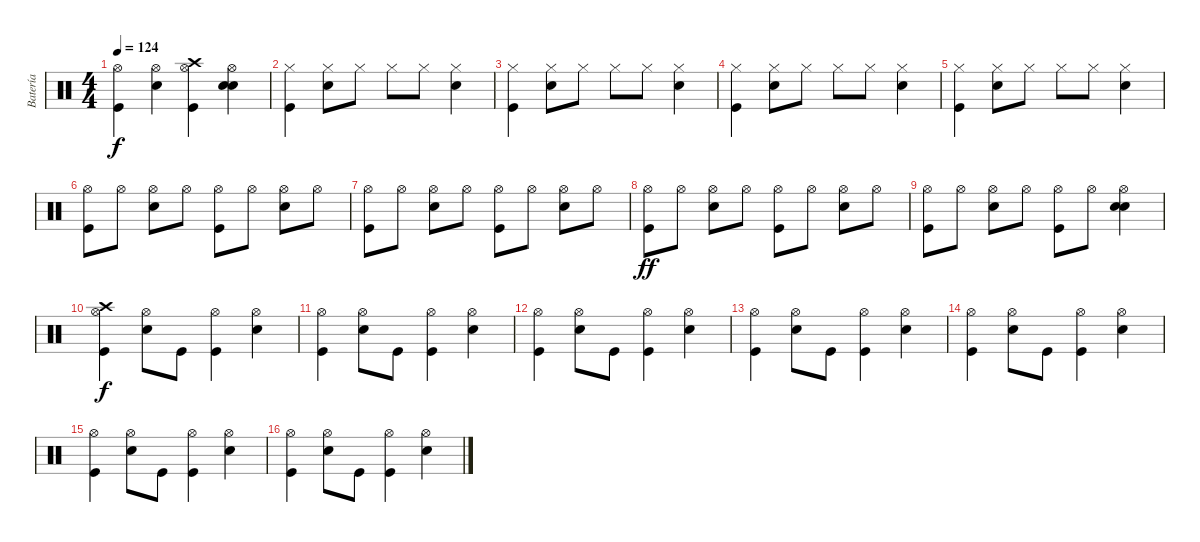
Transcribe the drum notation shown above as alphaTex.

\track ("Batería" "Batería") {instrument percussion}
\staff {score}
\articulation defaults
\ts (4 4)
\tempo 124
\clef neutral
\ks c
("Hi-Hat (open)" "Kick (hit)").4{dy f} ("Hi-Hat (open)" "Snare (hit) 2").4 ("Crash high (hit)" "Hi-Hat (open)" "Kick (hit)").4 ("Hi-Hat (open)" "Snare (hit) 2" "Snare (hit) 2").4 |
("Hi-Hat (closed)" "Kick (hit)").4 ("Hi-Hat (closed)" "Snare (hit) 2").8 "Hi-Hat (closed)".8 "Hi-Hat (closed)".8 "Hi-Hat (closed)".8 ("Hi-Hat (closed)" "Snare (hit) 2").4 |
("Hi-Hat (closed)" "Kick (hit)").4 ("Hi-Hat (closed)" "Snare (hit) 2").8 "Hi-Hat (closed)".8 "Hi-Hat (closed)".8 "Hi-Hat (closed)".8 ("Hi-Hat (closed)" "Snare (hit) 2").4 |
("Hi-Hat (closed)" "Kick (hit)").4 ("Hi-Hat (closed)" "Snare (hit) 2").8 "Hi-Hat (closed)".8 "Hi-Hat (closed)".8 "Hi-Hat (closed)".8 ("Hi-Hat (closed)" "Snare (hit) 2").4 |
("Hi-Hat (closed)" "Kick (hit)").4 ("Hi-Hat (closed)" "Snare (hit) 2").8 "Hi-Hat (closed)".8 "Hi-Hat (closed)".8 "Hi-Hat (closed)".8 ("Hi-Hat (closed)" "Snare (hit) 2").4 |
("Hi-Hat (open)" "Kick (hit)").8 "Hi-Hat (open)".8 ("Hi-Hat (open)" "Snare (hit) 2").8 "Hi-Hat (open)".8 ("Hi-Hat (open)" "Kick (hit)").8 "Hi-Hat (open)".8 ("Hi-Hat (open)" "Snare (hit) 2").8 "Hi-Hat (open)".8 |
("Hi-Hat (open)" "Kick (hit)").8 "Hi-Hat (open)".8 ("Hi-Hat (open)" "Snare (hit) 2").8 "Hi-Hat (open)".8 ("Hi-Hat (open)" "Kick (hit)").8 "Hi-Hat (open)".8 ("Hi-Hat (open)" "Snare (hit) 2").8 "Hi-Hat (open)".8 |
("Hi-Hat (open)" "Kick (hit)").8{dy ff} "Hi-Hat (open)".8 ("Hi-Hat (open)" "Snare (hit) 2").8 "Hi-Hat (open)".8 ("Hi-Hat (open)" "Kick (hit)").8 "Hi-Hat (open)".8 ("Hi-Hat (open)" "Snare (hit) 2").8 "Hi-Hat (open)".8 |
("Hi-Hat (open)" "Kick (hit)").8 "Hi-Hat (open)".8 ("Hi-Hat (open)" "Snare (hit) 2").8 "Hi-Hat (open)".8 ("Hi-Hat (open)" "Kick (hit)").8 "Hi-Hat (open)".8 ("Hi-Hat (open)" "Snare (hit) 2" "Snare (hit) 2").4 |
("Crash high (hit)" "Hi-Hat (open)" "Kick (hit)").4{dy f} ("Hi-Hat (open)" "Snare (hit) 2").8 "Kick (hit)".8 ("Hi-Hat (open)" "Kick (hit)").4 ("Hi-Hat (open)" "Snare (hit) 2").4 |
("Hi-Hat (open)" "Kick (hit)").4 ("Hi-Hat (open)" "Snare (hit) 2").8 "Kick (hit)".8 ("Hi-Hat (open)" "Kick (hit)").4 ("Hi-Hat (open)" "Snare (hit) 2").4 |
("Hi-Hat (open)" "Kick (hit)").4 ("Hi-Hat (open)" "Snare (hit) 2").8 "Kick (hit)".8 ("Hi-Hat (open)" "Kick (hit)").4 ("Hi-Hat (open)" "Snare (hit) 2").4 |
("Hi-Hat (open)" "Kick (hit)").4 ("Hi-Hat (open)" "Snare (hit) 2").8 "Kick (hit)".8 ("Hi-Hat (open)" "Kick (hit)").4 ("Hi-Hat (open)" "Snare (hit) 2").4 |
("Hi-Hat (open)" "Kick (hit)").4 ("Hi-Hat (open)" "Snare (hit) 2").8 "Kick (hit)".8 ("Hi-Hat (open)" "Kick (hit)").4 ("Hi-Hat (open)" "Snare (hit) 2").4 |
("Hi-Hat (open)" "Kick (hit)").4 ("Hi-Hat (open)" "Snare (hit) 2").8 "Kick (hit)".8 ("Hi-Hat (open)" "Kick (hit)").4 ("Hi-Hat (open)" "Snare (hit) 2").4 |
("Hi-Hat (open)" "Kick (hit)").4 ("Hi-Hat (open)" "Snare (hit) 2").8 "Kick (hit)".8 ("Hi-Hat (open)" "Kick (hit)").4 ("Hi-Hat (open)" "Snare (hit) 2").4
